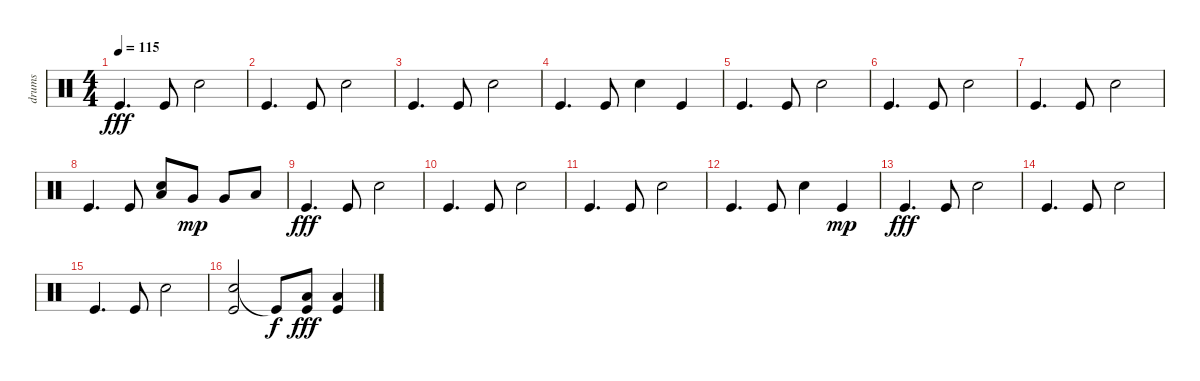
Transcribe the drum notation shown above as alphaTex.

\track ("drums" "drums") {instrument percussion}
\staff {score}
\articulation defaults
\ts (4 4)
\tempo 115
\clef neutral
\ks c "Kick (hit)".4{d dy fff} "Kick (hit)".8 "Electric Snare (hit)".2
|
"Kick (hit)".4{d} "Kick (hit)".8 "Electric Snare (hit)".2 |
"Kick (hit)".4{d} "Kick (hit)".8 "Electric Snare (hit)".2 |
"Kick (hit)".4{d} "Kick (hit)".8 "Electric Snare (hit)".4 "Kick (hit)".4 |
"Kick (hit)".4{d} "Kick (hit)".8 "Electric Snare (hit)".2 |
"Kick (hit)".4{d} "Kick (hit)".8 "Electric Snare (hit)".2 |
"Kick (hit)".4{d} "Kick (hit)".8 "Electric Snare (hit)".2 |
"Kick (hit)".4{d} "Kick (hit)".8 ("Low Tom (hit)" "Electric Snare (hit)").8 "Very Low Tom (hit)".8{dy mp} "Very Low Tom (hit)".8 "Low Floor Tom (hit)".8 |
"Kick (hit)".4{d dy fff} "Kick (hit)".8 "Electric Snare (hit)".2 |
"Kick (hit)".4{d} "Kick (hit)".8 "Electric Snare (hit)".2 |
"Kick (hit)".4{d} "Kick (hit)".8 "Electric Snare (hit)".2 |
"Kick (hit)".4{d} "Kick (hit)".8 "Electric Snare (hit)".4 "Kick (hit)".4{dy mp} |
"Kick (hit)".4{d dy fff} "Kick (hit)".8 "Electric Snare (hit)".2 |
"Kick (hit)".4{d} "Kick (hit)".8 "Electric Snare (hit)".2 |
"Kick (hit)".4{d} "Kick (hit)".8 "Electric Snare (hit)".2 |
("Electric Snare (hit)" "Kick (hit)").2 "Kick (hit)"{t}.8{dy f} ("Low Floor Tom (hit)" "Kick (hit)").8{dy fff} ("Low Floor Tom (hit)" "Kick (hit)").4
